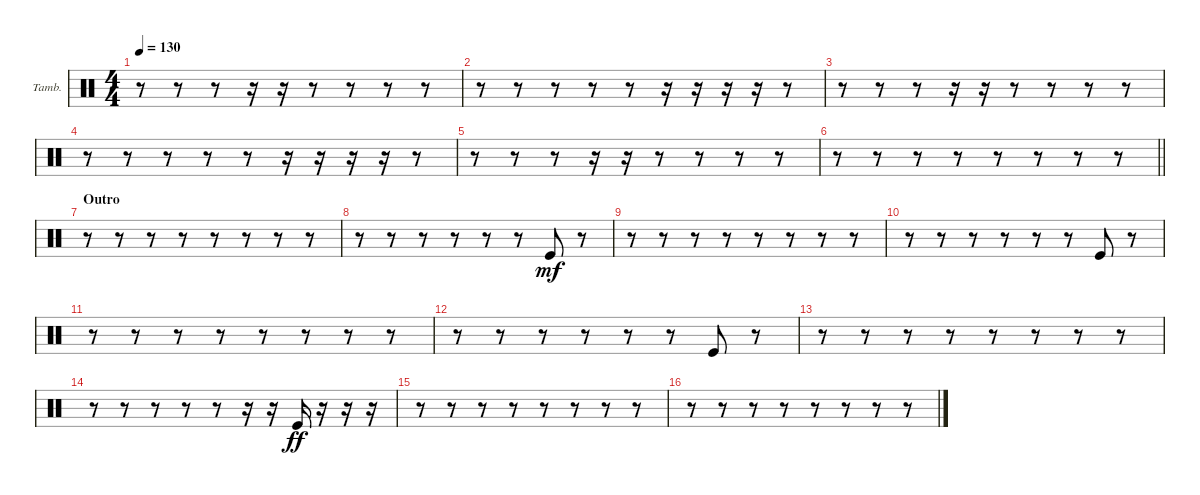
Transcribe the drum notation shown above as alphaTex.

\bracketExtendMode groupsimilarinstruments
\firstSystemTrackNameOrientation horizontal
\otherSystemsTrackNameOrientation horizontal
\track ("Tambourine" "Tamb.") {instrument percussion}
\staff {score}
\articulation defaults
\ts (4 4)
\tempo 130
\clef neutral
\ks c
r.8{dy mf} r.8 r.8 r.16 r.16 r.8 r.8 r.8 r.8 |
r.8 r.8 r.8 r.8 r.8 r.16 r.16 r.16 r.16 r.8 |
r.8 r.8 r.8 r.16 r.16 r.8 r.8 r.8 r.8 |
r.8 r.8 r.8 r.8 r.8 r.16 r.16 r.16 r.16 r.8 |
r.8 r.8 r.8 r.16 r.16 r.8 r.8 r.8 r.8 |
\barLineRight lightlight
r.8 r.8 r.8 r.8 r.8 r.8 r.8 r.8 |
\section ("" "Outro")
r.8 r.8 r.8 r.8 r.8 r.8 r.8 r.8 |
r.8 r.8 r.8 r.8 r.8 r.8 "Kick (hit)".8 r.8 |
r.8 r.8 r.8 r.8 r.8 r.8 r.8 r.8 |
r.8 r.8 r.8 r.8 r.8 r.8 "Kick (hit)".8 r.8 |
r.8 r.8 r.8 r.8 r.8 r.8 r.8 r.8 |
r.8 r.8 r.8 r.8 r.8 r.8 "Kick (hit)".8 r.8 |
r.8 r.8 r.8 r.8 r.8 r.8 r.8 r.8 |
r.8 r.8 r.8 r.8 r.8 r.16 r.16 "Kick (hit)".16{dy ff} r.16 r.16 r.16 |
r.8 r.8 r.8 r.8 r.8 r.8 r.8 r.8 |
r.8 r.8 r.8 r.8 r.8 r.8 r.8 r.8
